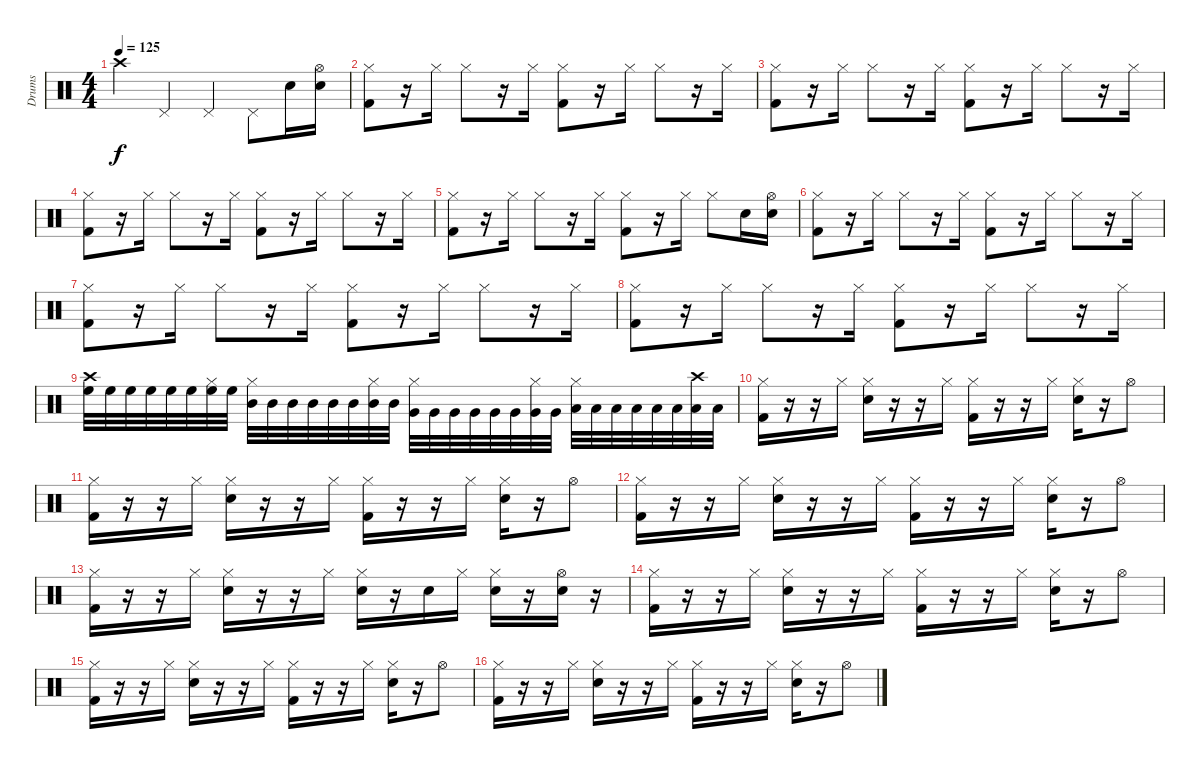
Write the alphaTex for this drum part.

\track ("Drums" "Drums") {instrument percussion}
\staff {score}
\articulation defaults
\ts (4 4)
\tempo 125
\clef neutral
\ks c "Crash high (hit)".4{dy f} "Pedal Hi-Hat (hit)".4 "Pedal Hi-Hat (hit)".4 "Pedal Hi-Hat (hit)".8 "Electric Snare (hit)".16
("Hi-Hat (open)" "Electric Snare (hit)").16 |
("Hi-Hat (closed)" "Kick (hit) 2").8 r.16 "Hi-Hat (closed)".16 "Hi-Hat (closed)".8 r.16 "Hi-Hat (closed)".16 ("Hi-Hat (closed)" "Kick (hit) 2").8 r.16 "Hi-Hat (closed)".16 "Hi-Hat (closed)".8 r.16 "Hi-Hat (closed)".16 |
("Hi-Hat (closed)" "Kick (hit) 2").8 r.16 "Hi-Hat (closed)".16 "Hi-Hat (closed)".8 r.16 "Hi-Hat (closed)".16 ("Hi-Hat (closed)" "Kick (hit) 2").8 r.16 "Hi-Hat (closed)".16 "Hi-Hat (closed)".8 r.16 "Hi-Hat (closed)".16 |
("Hi-Hat (closed)" "Kick (hit) 2").8 r.16 "Hi-Hat (closed)".16 "Hi-Hat (closed)".8 r.16 "Hi-Hat (closed)".16 ("Hi-Hat (closed)" "Kick (hit) 2").8 r.16 "Hi-Hat (closed)".16 "Hi-Hat (closed)".8 r.16 "Hi-Hat (closed)".16 |
("Hi-Hat (closed)" "Kick (hit) 2").8 r.16 "Hi-Hat (closed)".16 "Hi-Hat (closed)".8 r.16 "Hi-Hat (closed)".16 ("Hi-Hat (closed)" "Kick (hit) 2").8 r.16 "Hi-Hat (closed)".16 "Hi-Hat (closed)".8 "Electric Snare (hit)".16 ("Hi-Hat (open)" "Electric Snare (hit)").16 |
("Hi-Hat (closed)" "Kick (hit) 2").8 r.16 "Hi-Hat (closed)".16 "Hi-Hat (closed)".8 r.16 "Hi-Hat (closed)".16 ("Hi-Hat (closed)" "Kick (hit) 2").8 r.16 "Hi-Hat (closed)".16 "Hi-Hat (closed)".8 r.16 "Hi-Hat (closed)".16 |
("Hi-Hat (closed)" "Kick (hit) 2").8 r.16 "Hi-Hat (closed)".16 "Hi-Hat (closed)".8 r.16 "Hi-Hat (closed)".16 ("Hi-Hat (closed)" "Kick (hit) 2").8 r.16 "Hi-Hat (closed)".16 "Hi-Hat (closed)".8 r.16 "Hi-Hat (closed)".16 |
("Hi-Hat (closed)" "Kick (hit) 2").8 r.16 "Hi-Hat (closed)".16 "Hi-Hat (closed)".8 r.16 "Hi-Hat (closed)".16 ("Hi-Hat (closed)" "Kick (hit) 2").8 r.16 "Hi-Hat (closed)".16 "Hi-Hat (closed)".8 r.16 "Hi-Hat (closed)".16 |
("Crash high (hit)" "High Floor Tom (hit)").32 "High Floor Tom (hit)".32 "High Floor Tom (hit)".32 "High Floor Tom (hit)".32 "High Floor Tom (hit)".32 "High Floor Tom (hit)".32 ("Hi-Hat (closed)" "High Floor Tom (hit)").32 "High Floor Tom (hit)".32 ("Hi-Hat (closed)" "Mid Tom (hit)").32 "Mid Tom (hit)".32 "Mid Tom (hit)".32 "Mid Tom (hit)".32 "Mid Tom (hit)".32 "Mid Tom (hit)".32 ("Hi-Hat (closed)" "Mid Tom (hit)").32 "Mid Tom (hit)".32 ("Hi-Hat (closed)" "Very Low Tom (hit)").32 "Very Low Tom (hit)".32 "Very Low Tom (hit)".32 "Very Low Tom (hit)".32 "Very Low Tom (hit)".32 "Very Low Tom (hit)".32 ("Hi-Hat (closed)" "Very Low Tom (hit)").32 "Very Low Tom (hit)".32 ("Hi-Hat (closed)" "Low Floor Tom (hit)").32 "Low Floor Tom (hit)".32 "Low Floor Tom (hit)".32 "Low Floor Tom (hit)".32 "Low Floor Tom (hit)".32 "Low Floor Tom (hit)".32 ("Crash high (hit)" "Low Floor Tom (hit)").32 "Low Floor Tom (hit)".32 |
("Hi-Hat (closed)" "Kick (hit) 2").16 r.16 r.16 "Hi-Hat (closed)".16 ("Hi-Hat (closed)" "Electric Snare (hit)").16 r.16 r.16 "Hi-Hat (closed)".16 ("Hi-Hat (closed)" "Kick (hit) 2").16 r.16 r.16 "Hi-Hat (closed)".16 ("Hi-Hat (closed)" "Electric Snare (hit)").16 r.16 "Hi-Hat (open)".8 |
("Hi-Hat (closed)" "Kick (hit) 2").16 r.16 r.16 "Hi-Hat (closed)".16 ("Hi-Hat (closed)" "Electric Snare (hit)").16 r.16 r.16 "Hi-Hat (closed)".16 ("Hi-Hat (closed)" "Kick (hit) 2").16 r.16 r.16 "Hi-Hat (closed)".16 ("Hi-Hat (closed)" "Electric Snare (hit)").16 r.16 "Hi-Hat (open)".8 |
("Hi-Hat (closed)" "Kick (hit) 2").16 r.16 r.16 "Hi-Hat (closed)".16 ("Hi-Hat (closed)" "Electric Snare (hit)").16 r.16 r.16 "Hi-Hat (closed)".16 ("Hi-Hat (closed)" "Kick (hit) 2").16 r.16 r.16 "Hi-Hat (closed)".16 ("Hi-Hat (closed)" "Electric Snare (hit)").16 r.16 "Hi-Hat (open)".8 |
("Hi-Hat (closed)" "Kick (hit) 2").16 r.16 r.16 "Hi-Hat (closed)".16 ("Hi-Hat (closed)" "Electric Snare (hit)").16 r.16 r.16 "Hi-Hat (closed)".16 ("Hi-Hat (closed)" "Electric Snare (hit)").16 r.16 "Electric Snare (hit)".16 "Hi-Hat (closed)".16 ("Hi-Hat (closed)" "Electric Snare (hit)").16 r.16 ("Hi-Hat (open)" "Electric Snare (hit)").16 r.16 |
("Hi-Hat (closed)" "Kick (hit) 2").16 r.16 r.16 "Hi-Hat (closed)".16 ("Hi-Hat (closed)" "Electric Snare (hit)").16 r.16 r.16 "Hi-Hat (closed)".16 ("Hi-Hat (closed)" "Kick (hit) 2").16 r.16 r.16 "Hi-Hat (closed)".16 ("Hi-Hat (closed)" "Electric Snare (hit)").16 r.16 "Hi-Hat (open)".8 |
("Hi-Hat (closed)" "Kick (hit) 2").16 r.16 r.16 "Hi-Hat (closed)".16 ("Hi-Hat (closed)" "Electric Snare (hit)").16 r.16 r.16 "Hi-Hat (closed)".16 ("Hi-Hat (closed)" "Kick (hit) 2").16 r.16 r.16 "Hi-Hat (closed)".16 ("Hi-Hat (closed)" "Electric Snare (hit)").16 r.16 "Hi-Hat (open)".8 |
("Hi-Hat (closed)" "Kick (hit) 2").16 r.16 r.16 "Hi-Hat (closed)".16 ("Hi-Hat (closed)" "Electric Snare (hit)").16 r.16 r.16 "Hi-Hat (closed)".16 ("Hi-Hat (closed)" "Kick (hit) 2").16 r.16 r.16 "Hi-Hat (closed)".16 ("Hi-Hat (closed)" "Electric Snare (hit)").16 r.16 "Hi-Hat (open)".8
